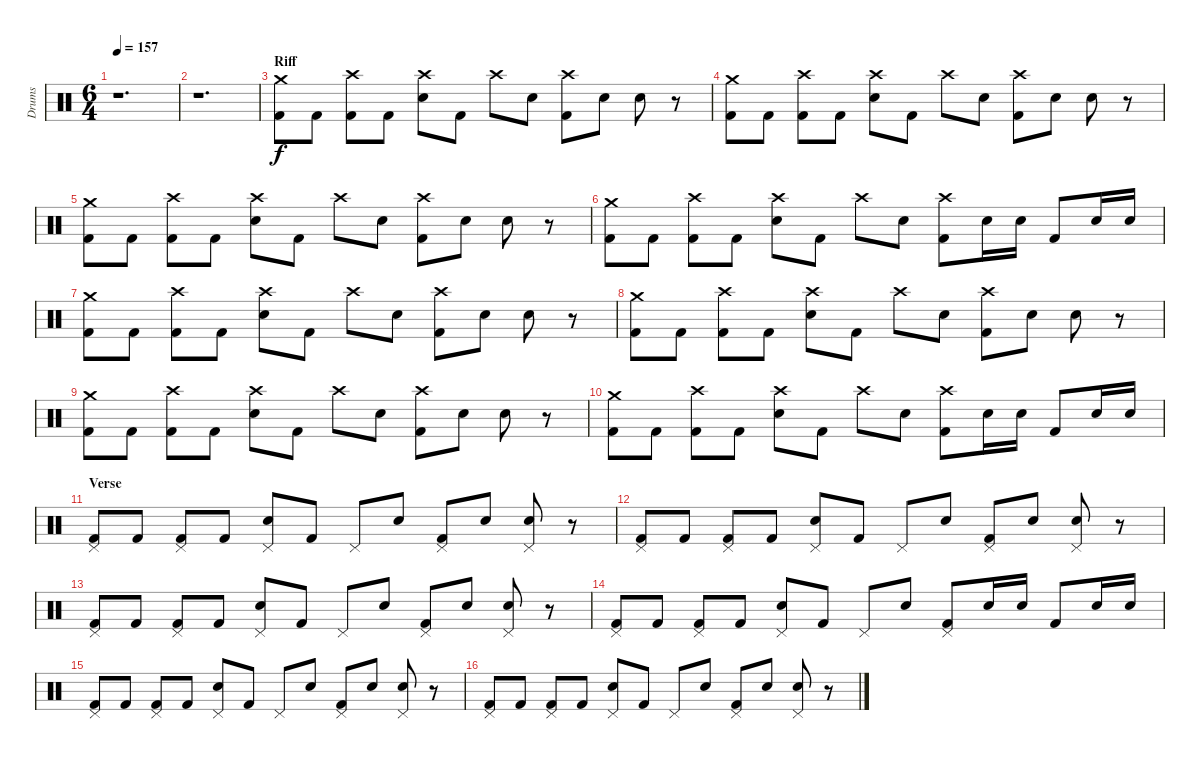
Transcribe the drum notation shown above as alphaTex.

\track ("Drums" "Drums") {instrument percussion}
\staff {score}
\articulation defaults
\ts (6 4)
\tempo 157
\clef neutral
\ks c
r.1{d dy f} |
r.1{d} |
\section ("" "Riff")
("Crash medium (hit)" "Kick (hit) 2").8 "Kick (hit) 2".8 ("Crash high (hit)" "Kick (hit) 2").8 "Kick (hit) 2".8 ("Crash high (hit)" "Electric Snare (hit)").8 "Kick (hit) 2".8 "Crash high (hit)".8 "Electric Snare (hit)".8 ("Crash high (hit)" "Kick (hit) 2").8 "Electric Snare (hit)".8 "Electric Snare (hit)".8 r.8 |
("Crash medium (hit)" "Kick (hit) 2").8 "Kick (hit) 2".8 ("Crash high (hit)" "Kick (hit) 2").8 "Kick (hit) 2".8 ("Crash high (hit)" "Electric Snare (hit)").8 "Kick (hit) 2".8 "Crash high (hit)".8 "Electric Snare (hit)".8 ("Crash high (hit)" "Kick (hit) 2").8 "Electric Snare (hit)".8 "Electric Snare (hit)".8 r.8 |
("Crash medium (hit)" "Kick (hit) 2").8 "Kick (hit) 2".8 ("Crash high (hit)" "Kick (hit) 2").8 "Kick (hit) 2".8 ("Crash high (hit)" "Electric Snare (hit)").8 "Kick (hit) 2".8 "Crash high (hit)".8 "Electric Snare (hit)".8 ("Crash high (hit)" "Kick (hit) 2").8 "Electric Snare (hit)".8 "Electric Snare (hit)".8 r.8 |
("Crash medium (hit)" "Kick (hit) 2").8 "Kick (hit) 2".8 ("Crash high (hit)" "Kick (hit) 2").8 "Kick (hit) 2".8 ("Crash high (hit)" "Electric Snare (hit)").8 "Kick (hit) 2".8 "Crash high (hit)".8 "Electric Snare (hit)".8 ("Crash high (hit)" "Kick (hit) 2").8 "Electric Snare (hit)".16 "Electric Snare (hit)".16 "Kick (hit) 2".8 "Electric Snare (hit)".16 "Electric Snare (hit)".16 |
("Crash medium (hit)" "Kick (hit) 2").8 "Kick (hit) 2".8 ("Crash high (hit)" "Kick (hit) 2").8 "Kick (hit) 2".8 ("Crash high (hit)" "Electric Snare (hit)").8 "Kick (hit) 2".8 "Crash high (hit)".8 "Electric Snare (hit)".8 ("Crash high (hit)" "Kick (hit) 2").8 "Electric Snare (hit)".8 "Electric Snare (hit)".8 r.8 |
("Crash medium (hit)" "Kick (hit) 2").8 "Kick (hit) 2".8 ("Crash high (hit)" "Kick (hit) 2").8 "Kick (hit) 2".8 ("Crash high (hit)" "Electric Snare (hit)").8 "Kick (hit) 2".8 "Crash high (hit)".8 "Electric Snare (hit)".8 ("Crash high (hit)" "Kick (hit) 2").8 "Electric Snare (hit)".8 "Electric Snare (hit)".8 r.8 |
("Crash medium (hit)" "Kick (hit) 2").8 "Kick (hit) 2".8 ("Crash high (hit)" "Kick (hit) 2").8 "Kick (hit) 2".8 ("Crash high (hit)" "Electric Snare (hit)").8 "Kick (hit) 2".8 "Crash high (hit)".8 "Electric Snare (hit)".8 ("Crash high (hit)" "Kick (hit) 2").8 "Electric Snare (hit)".8 "Electric Snare (hit)".8 r.8 |
("Crash medium (hit)" "Kick (hit) 2").8 "Kick (hit) 2".8 ("Crash high (hit)" "Kick (hit) 2").8 "Kick (hit) 2".8 ("Crash high (hit)" "Electric Snare (hit)").8 "Kick (hit) 2".8 "Crash high (hit)".8 "Electric Snare (hit)".8 ("Crash high (hit)" "Kick (hit) 2").8 "Electric Snare (hit)".16 "Electric Snare (hit)".16 "Kick (hit) 2".8 "Electric Snare (hit)".16 "Electric Snare (hit)".16 |
\section ("" "Verse")
("Pedal Hi-Hat (hit)" "Kick (hit) 2").8 "Kick (hit) 2".8 ("Pedal Hi-Hat (hit)" "Kick (hit) 2").8 "Kick (hit) 2".8 ("Pedal Hi-Hat (hit)" "Electric Snare (hit)").8 "Kick (hit) 2".8 "Pedal Hi-Hat (hit)".8 "Electric Snare (hit)".8 ("Pedal Hi-Hat (hit)" "Kick (hit) 2").8 "Electric Snare (hit)".8 ("Pedal Hi-Hat (hit)" "Electric Snare (hit)").8 r.8 |
("Pedal Hi-Hat (hit)" "Kick (hit) 2").8 "Kick (hit) 2".8 ("Pedal Hi-Hat (hit)" "Kick (hit) 2").8 "Kick (hit) 2".8 ("Pedal Hi-Hat (hit)" "Electric Snare (hit)").8 "Kick (hit) 2".8 "Pedal Hi-Hat (hit)".8 "Electric Snare (hit)".8 ("Pedal Hi-Hat (hit)" "Kick (hit) 2").8 "Electric Snare (hit)".8 ("Pedal Hi-Hat (hit)" "Electric Snare (hit)").8 r.8 |
("Pedal Hi-Hat (hit)" "Kick (hit) 2").8 "Kick (hit) 2".8 ("Pedal Hi-Hat (hit)" "Kick (hit) 2").8 "Kick (hit) 2".8 ("Pedal Hi-Hat (hit)" "Electric Snare (hit)").8 "Kick (hit) 2".8 "Pedal Hi-Hat (hit)".8 "Electric Snare (hit)".8 ("Pedal Hi-Hat (hit)" "Kick (hit) 2").8 "Electric Snare (hit)".8 ("Pedal Hi-Hat (hit)" "Electric Snare (hit)").8 r.8 |
("Pedal Hi-Hat (hit)" "Kick (hit) 2").8 "Kick (hit) 2".8 ("Pedal Hi-Hat (hit)" "Kick (hit) 2").8 "Kick (hit) 2".8 ("Pedal Hi-Hat (hit)" "Electric Snare (hit)").8 "Kick (hit) 2".8 "Pedal Hi-Hat (hit)".8 "Electric Snare (hit)".8 ("Pedal Hi-Hat (hit)" "Kick (hit) 2").8 "Electric Snare (hit)".16 "Electric Snare (hit)".16 "Kick (hit) 2".8 "Electric Snare (hit)".16 "Electric Snare (hit)".16 |
("Pedal Hi-Hat (hit)" "Kick (hit) 2").8 "Kick (hit) 2".8 ("Pedal Hi-Hat (hit)" "Kick (hit) 2").8 "Kick (hit) 2".8 ("Pedal Hi-Hat (hit)" "Electric Snare (hit)").8 "Kick (hit) 2".8 "Pedal Hi-Hat (hit)".8 "Electric Snare (hit)".8 ("Pedal Hi-Hat (hit)" "Kick (hit) 2").8 "Electric Snare (hit)".8 ("Pedal Hi-Hat (hit)" "Electric Snare (hit)").8 r.8 |
("Pedal Hi-Hat (hit)" "Kick (hit) 2").8 "Kick (hit) 2".8 ("Pedal Hi-Hat (hit)" "Kick (hit) 2").8 "Kick (hit) 2".8 ("Pedal Hi-Hat (hit)" "Electric Snare (hit)").8 "Kick (hit) 2".8 "Pedal Hi-Hat (hit)".8 "Electric Snare (hit)".8 ("Pedal Hi-Hat (hit)" "Kick (hit) 2").8 "Electric Snare (hit)".8 ("Pedal Hi-Hat (hit)" "Electric Snare (hit)").8 r.8
